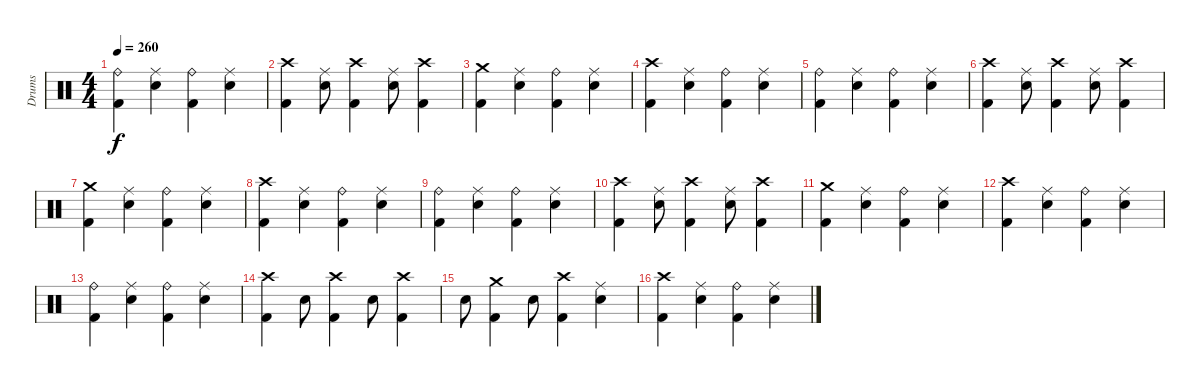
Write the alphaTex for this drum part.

\track ("Drums" "Drums") {instrument percussion}
\staff {score}
\articulation defaults
\ts (4 4)
\tempo 260
\clef neutral
\ks c
("Ride (bell)" "Kick (hit) 2").4{dy f} ("Ride (middle)" "Electric Snare (hit)").4 ("Ride (bell)" "Kick (hit) 2").4 ("Ride (middle)" "Electric Snare (hit)").4 |
("Crash high (hit)" "Kick (hit) 2").4 ("Ride (middle)" "Electric Snare (hit)").8 ("Crash high (hit)" "Kick (hit) 2").4 ("Ride (middle)" "Electric Snare (hit)").8 ("Crash high (hit)" "Kick (hit) 2").4 |
("Crash medium (hit)" "Kick (hit) 2").4 ("Ride (middle)" "Electric Snare (hit)").4 ("Ride (bell)" "Kick (hit) 2").4 ("Ride (middle)" "Electric Snare (hit)").4 |
("Crash high (hit)" "Kick (hit) 2").4 ("Ride (middle)" "Electric Snare (hit)").4 ("Ride (bell)" "Kick (hit) 2").4 ("Ride (middle)" "Electric Snare (hit)").4 |
("Ride (bell)" "Kick (hit) 2").4 ("Ride (middle)" "Electric Snare (hit)").4 ("Ride (bell)" "Kick (hit) 2").4 ("Ride (middle)" "Electric Snare (hit)").4 |
("Crash high (hit)" "Kick (hit) 2").4 ("Ride (middle)" "Electric Snare (hit)").8 ("Crash high (hit)" "Kick (hit) 2").4 ("Ride (middle)" "Electric Snare (hit)").8 ("Crash high (hit)" "Kick (hit) 2").4 |
("Crash medium (hit)" "Kick (hit) 2").4 ("Ride (middle)" "Electric Snare (hit)").4 ("Ride (bell)" "Kick (hit) 2").4 ("Ride (middle)" "Electric Snare (hit)").4 |
("Crash high (hit)" "Kick (hit) 2").4 ("Ride (middle)" "Electric Snare (hit)").4 ("Ride (bell)" "Kick (hit) 2").4 ("Ride (middle)" "Electric Snare (hit)").4 |
("Ride (bell)" "Kick (hit) 2").4 ("Ride (middle)" "Electric Snare (hit)").4 ("Ride (bell)" "Kick (hit) 2").4 ("Ride (middle)" "Electric Snare (hit)").4 |
("Crash high (hit)" "Kick (hit) 2").4 ("Ride (middle)" "Electric Snare (hit)").8 ("Crash high (hit)" "Kick (hit) 2").4 ("Ride (middle)" "Electric Snare (hit)").8 ("Crash high (hit)" "Kick (hit) 2").4 |
("Crash medium (hit)" "Kick (hit) 2").4 ("Ride (middle)" "Electric Snare (hit)").4 ("Ride (bell)" "Kick (hit) 2").4 ("Ride (middle)" "Electric Snare (hit)").4 |
("Crash high (hit)" "Kick (hit) 2").4 ("Ride (middle)" "Electric Snare (hit)").4 ("Ride (bell)" "Kick (hit) 2").4 ("Ride (middle)" "Electric Snare (hit)").4 |
("Ride (bell)" "Kick (hit) 2").4 ("Ride (middle)" "Electric Snare (hit)").4 ("Ride (bell)" "Kick (hit) 2").4 ("Ride (middle)" "Electric Snare (hit)").4 |
("Crash high (hit)" "Kick (hit) 2").4 "Electric Snare (hit)".8 ("Crash high (hit)" "Kick (hit) 2").4 "Electric Snare (hit)".8 ("Crash high (hit)" "Kick (hit) 2").4 |
"Electric Snare (hit)".8 ("Crash medium (hit)" "Kick (hit) 2").4 "Electric Snare (hit)".8 ("Crash high (hit)" "Kick (hit) 2").4 ("Ride (middle)" "Electric Snare (hit)").4 |
("Crash high (hit)" "Kick (hit) 2").4 ("Ride (middle)" "Electric Snare (hit)").4 ("Ride (bell)" "Kick (hit) 2").4 ("Ride (middle)" "Electric Snare (hit)").4
